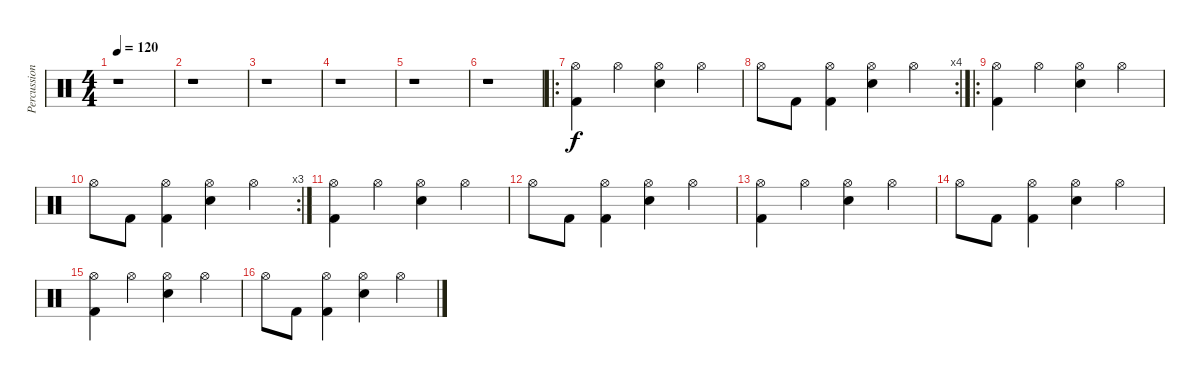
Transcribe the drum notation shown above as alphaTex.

\track ("Percussion" "Percussion") {instrument percussion}
\staff {score}
\articulation defaults
\ts (4 4)
\tempo 120
\clef neutral
\ks c
r.1{dy f} |
r.1 |
r.1 |
r.1 |
r.1 |
r.1 |
\ro
("Kick (hit) 2" "Hi-Hat (open)").4 "Hi-Hat (open)".4 ("Electric Snare (hit)" "Hi-Hat (open)").4 "Hi-Hat (open)".4 |
\rc 4 "Hi-Hat (open)".8 "Kick (hit) 2".8
("Kick (hit) 2" "Hi-Hat (open)").4 ("Electric Snare (hit)" "Hi-Hat (open)").4 "Hi-Hat (open)".4 |
\ro
("Kick (hit) 2" "Hi-Hat (open)").4 "Hi-Hat (open)".4 ("Electric Snare (hit)" "Hi-Hat (open)").4 "Hi-Hat (open)".4 |
\rc 3 "Hi-Hat (open)".8 "Kick (hit) 2".8
("Kick (hit) 2" "Hi-Hat (open)").4 ("Electric Snare (hit)" "Hi-Hat (open)").4 "Hi-Hat (open)".4 |
("Kick (hit) 2" "Hi-Hat (open)").4 "Hi-Hat (open)".4 ("Electric Snare (hit)" "Hi-Hat (open)").4 "Hi-Hat (open)".4 |
"Hi-Hat (open)".8 "Kick (hit) 2".8 ("Kick (hit) 2" "Hi-Hat (open)").4 ("Electric Snare (hit)" "Hi-Hat (open)").4 "Hi-Hat (open)".4 |
("Kick (hit) 2" "Hi-Hat (open)").4 "Hi-Hat (open)".4 ("Electric Snare (hit)" "Hi-Hat (open)").4 "Hi-Hat (open)".4 |
"Hi-Hat (open)".8 "Kick (hit) 2".8 ("Kick (hit) 2" "Hi-Hat (open)").4 ("Electric Snare (hit)" "Hi-Hat (open)").4 "Hi-Hat (open)".4 |
("Kick (hit) 2" "Hi-Hat (open)").4 "Hi-Hat (open)".4 ("Electric Snare (hit)" "Hi-Hat (open)").4 "Hi-Hat (open)".4 |
"Hi-Hat (open)".8 "Kick (hit) 2".8 ("Kick (hit) 2" "Hi-Hat (open)").4 ("Electric Snare (hit)" "Hi-Hat (open)").4 "Hi-Hat (open)".4
